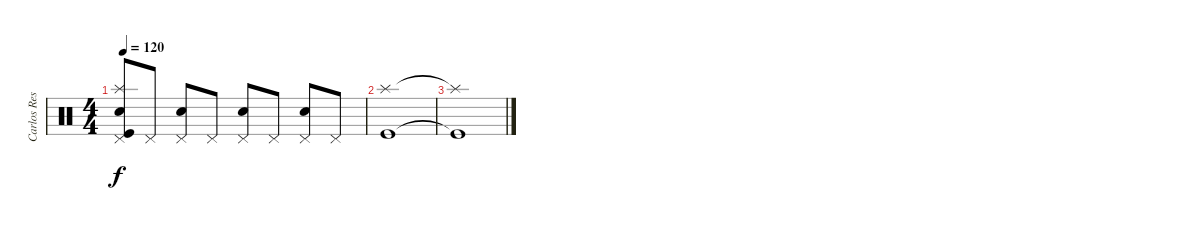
\track ("Carlos Restrepo" "Carlos Res") {instrument percussion}
\staff {score}
\articulation defaults
\ts (4 4)
\tempo 120
\clef neutral
\ks c
("Pedal Hi-Hat (hit)" "Kick (hit)" "Splash (hit)" "Snare (hit) 2").8{dy f} "Pedal Hi-Hat (hit)".8 ("Pedal Hi-Hat (hit)" "Snare (hit) 2").8 "Pedal Hi-Hat (hit)".8 ("Pedal Hi-Hat (hit)" "Snare (hit) 2").8 "Pedal Hi-Hat (hit)".8 ("Pedal Hi-Hat (hit)" "Snare (hit) 2").8 "Pedal Hi-Hat (hit)".8 |
("Splash (hit)" "Kick (hit)").1 |
("Splash (hit)"{t} "Kick (hit)"{t}).1
